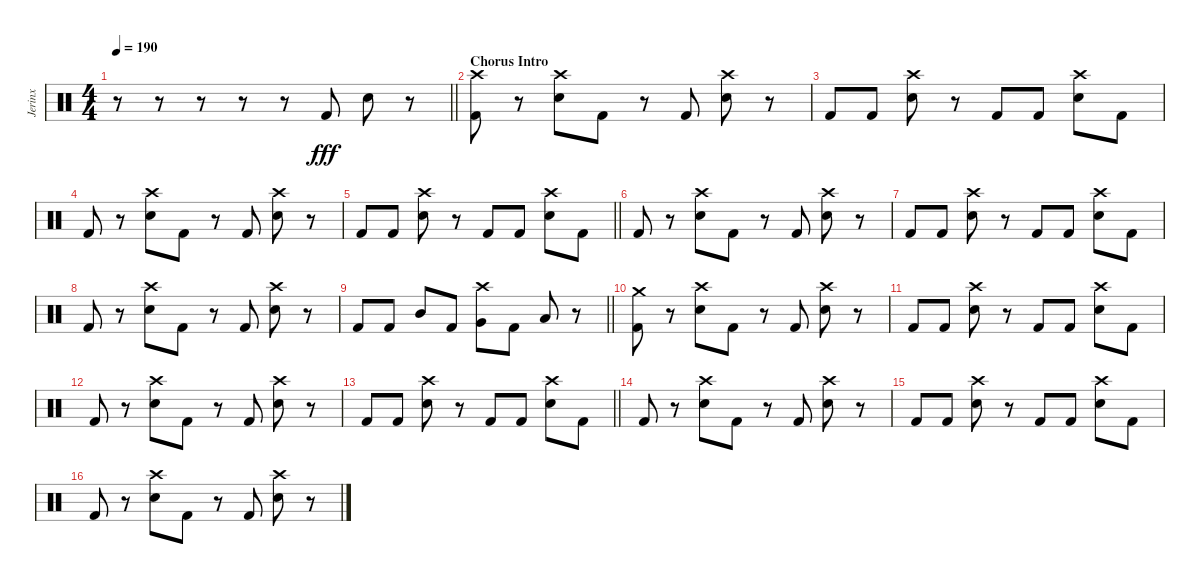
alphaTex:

\track ("Jerinx" "Jerinx") {instrument percussion}
\staff {score}
\articulation defaults
\ts (4 4)
\tempo 190
\clef neutral
\barLineRight lightlight
\ks c
r.8{dy fff} r.8 r.8 r.8 r.8 "Kick (hit) 2".8 "Electric Snare (hit)".8 r.8 |
\section ("" "Chorus Intro")
("Kick (hit) 2" "Crash high (hit)").8 r.8 ("Electric Snare (hit)" "Crash high (hit)").8 "Kick (hit) 2".8 r.8 "Kick (hit) 2".8 ("Electric Snare (hit)" "Crash high (hit)").8 r.8 |
"Kick (hit) 2".8 "Kick (hit) 2".8 ("Electric Snare (hit)" "Crash high (hit)").8 r.8 "Kick (hit) 2".8 "Kick (hit) 2".8 ("Electric Snare (hit)" "Crash high (hit)").8 "Kick (hit) 2".8 |
"Kick (hit) 2".8 r.8 ("Electric Snare (hit)" "Crash high (hit)").8 "Kick (hit) 2".8 r.8 "Kick (hit) 2".8 ("Electric Snare (hit)" "Crash high (hit)").8 r.8 |
\barLineRight lightlight "Kick (hit) 2".8 "Kick (hit) 2".8
("Electric Snare (hit)" "Crash high (hit)").8 r.8 "Kick (hit) 2".8 "Kick (hit) 2".8 ("Electric Snare (hit)" "Crash high (hit)").8 "Kick (hit) 2".8 |
"Kick (hit) 2".8 r.8 ("Electric Snare (hit)" "Crash high (hit)").8 "Kick (hit) 2".8 r.8 "Kick (hit) 2".8 ("Electric Snare (hit)" "Crash high (hit)").8 r.8 |
"Kick (hit) 2".8 "Kick (hit) 2".8 ("Electric Snare (hit)" "Crash high (hit)").8 r.8 "Kick (hit) 2".8 "Kick (hit) 2".8 ("Electric Snare (hit)" "Crash high (hit)").8 "Kick (hit) 2".8 |
"Kick (hit) 2".8 r.8 ("Electric Snare (hit)" "Crash high (hit)").8 "Kick (hit) 2".8 r.8 "Kick (hit) 2".8 ("Electric Snare (hit)" "Crash high (hit)").8 r.8 |
\barLineRight lightlight "Kick (hit) 2".8 "Kick (hit) 2".8 "Mid Tom (hit)".8 "Kick (hit) 2".8
("Very Low Tom (hit)" "Crash high (hit)").8 "Kick (hit) 2".8 "Low Tom (hit)".8 r.8 |
("Kick (hit) 2" "Crash medium (hit)").8 r.8 ("Electric Snare (hit)" "Crash high (hit)").8 "Kick (hit) 2".8 r.8 "Kick (hit) 2".8 ("Electric Snare (hit)" "Crash high (hit)").8 r.8 |
"Kick (hit) 2".8 "Kick (hit) 2".8 ("Electric Snare (hit)" "Crash high (hit)").8 r.8 "Kick (hit) 2".8 "Kick (hit) 2".8 ("Electric Snare (hit)" "Crash high (hit)").8 "Kick (hit) 2".8 |
"Kick (hit) 2".8 r.8 ("Electric Snare (hit)" "Crash high (hit)").8 "Kick (hit) 2".8 r.8 "Kick (hit) 2".8 ("Electric Snare (hit)" "Crash high (hit)").8 r.8 |
\barLineRight lightlight "Kick (hit) 2".8 "Kick (hit) 2".8
("Electric Snare (hit)" "Crash high (hit)").8 r.8 "Kick (hit) 2".8 "Kick (hit) 2".8 ("Electric Snare (hit)" "Crash high (hit)").8 "Kick (hit) 2".8 |
"Kick (hit) 2".8 r.8 ("Electric Snare (hit)" "Crash high (hit)").8 "Kick (hit) 2".8 r.8 "Kick (hit) 2".8 ("Electric Snare (hit)" "Crash high (hit)").8 r.8 |
"Kick (hit) 2".8 "Kick (hit) 2".8 ("Electric Snare (hit)" "Crash high (hit)").8 r.8 "Kick (hit) 2".8 "Kick (hit) 2".8 ("Electric Snare (hit)" "Crash high (hit)").8 "Kick (hit) 2".8 |
"Kick (hit) 2".8 r.8 ("Electric Snare (hit)" "Crash high (hit)").8 "Kick (hit) 2".8 r.8 "Kick (hit) 2".8 ("Electric Snare (hit)" "Crash high (hit)").8 r.8
